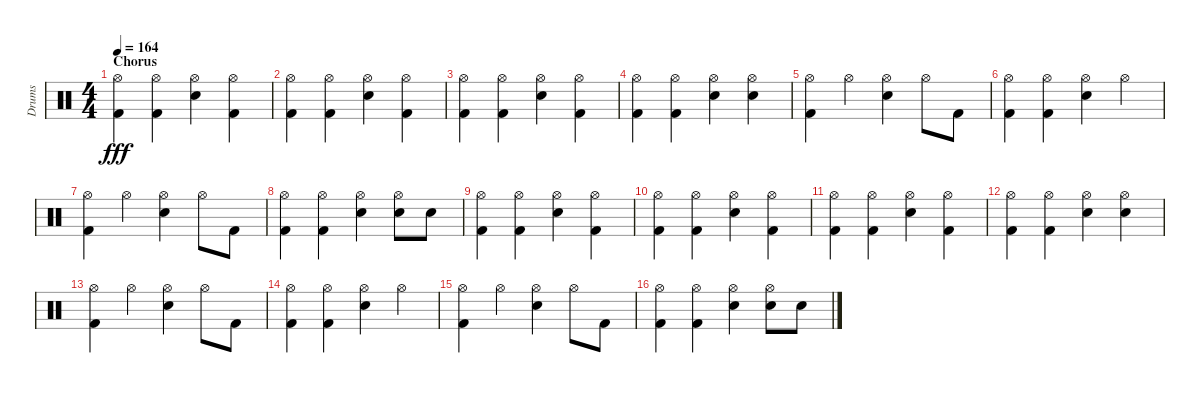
\track ("Drums" "Drums") {instrument percussion}
\staff {score}
\articulation defaults
\ts (4 4)
\section ("" "Chorus")
\tempo 164
\clef neutral
\ks c
("Hi-Hat (open)" "Kick (hit) 2").4{dy fff} ("Hi-Hat (open)" "Kick (hit) 2").4 ("Hi-Hat (open)" "Electric Snare (hit)").4 ("Hi-Hat (open)" "Kick (hit) 2").4 |
("Hi-Hat (open)" "Kick (hit) 2").4 ("Hi-Hat (open)" "Kick (hit) 2").4 ("Hi-Hat (open)" "Electric Snare (hit)").4 ("Hi-Hat (open)" "Kick (hit) 2").4 |
("Hi-Hat (open)" "Kick (hit) 2").4 ("Hi-Hat (open)" "Kick (hit) 2").4 ("Hi-Hat (open)" "Electric Snare (hit)").4 ("Hi-Hat (open)" "Kick (hit) 2").4 |
("Hi-Hat (open)" "Kick (hit) 2").4 ("Hi-Hat (open)" "Kick (hit) 2").4 ("Hi-Hat (open)" "Electric Snare (hit)").4 ("Hi-Hat (open)" "Electric Snare (hit)").4 |
("Hi-Hat (open)" "Kick (hit) 2").4 "Hi-Hat (open)".4 ("Hi-Hat (open)" "Electric Snare (hit)").4 "Hi-Hat (open)".8 "Kick (hit) 2".8 |
("Hi-Hat (open)" "Kick (hit) 2").4 ("Hi-Hat (open)" "Kick (hit) 2").4 ("Hi-Hat (open)" "Electric Snare (hit)").4 "Hi-Hat (open)".4 |
("Hi-Hat (open)" "Kick (hit) 2").4 "Hi-Hat (open)".4 ("Hi-Hat (open)" "Electric Snare (hit)").4 "Hi-Hat (open)".8 "Kick (hit) 2".8 |
("Hi-Hat (open)" "Kick (hit) 2").4 ("Hi-Hat (open)" "Kick (hit) 2").4 ("Hi-Hat (open)" "Electric Snare (hit)").4 ("Hi-Hat (open)" "Electric Snare (hit)").8 "Electric Snare (hit)".8 |
("Hi-Hat (open)" "Kick (hit) 2").4 ("Hi-Hat (open)" "Kick (hit) 2").4 ("Hi-Hat (open)" "Electric Snare (hit)").4 ("Hi-Hat (open)" "Kick (hit) 2").4 |
("Hi-Hat (open)" "Kick (hit) 2").4 ("Hi-Hat (open)" "Kick (hit) 2").4 ("Hi-Hat (open)" "Electric Snare (hit)").4 ("Hi-Hat (open)" "Kick (hit) 2").4 |
("Hi-Hat (open)" "Kick (hit) 2").4 ("Hi-Hat (open)" "Kick (hit) 2").4 ("Hi-Hat (open)" "Electric Snare (hit)").4 ("Hi-Hat (open)" "Kick (hit) 2").4 |
("Hi-Hat (open)" "Kick (hit) 2").4 ("Hi-Hat (open)" "Kick (hit) 2").4 ("Hi-Hat (open)" "Electric Snare (hit)").4 ("Hi-Hat (open)" "Electric Snare (hit)").4 |
("Hi-Hat (open)" "Kick (hit) 2").4 "Hi-Hat (open)".4 ("Hi-Hat (open)" "Electric Snare (hit)").4 "Hi-Hat (open)".8 "Kick (hit) 2".8 |
("Hi-Hat (open)" "Kick (hit) 2").4 ("Hi-Hat (open)" "Kick (hit) 2").4 ("Hi-Hat (open)" "Electric Snare (hit)").4 "Hi-Hat (open)".4 |
("Hi-Hat (open)" "Kick (hit) 2").4 "Hi-Hat (open)".4 ("Hi-Hat (open)" "Electric Snare (hit)").4 "Hi-Hat (open)".8 "Kick (hit) 2".8 |
("Hi-Hat (open)" "Kick (hit) 2").4 ("Hi-Hat (open)" "Kick (hit) 2").4 ("Hi-Hat (open)" "Electric Snare (hit)").4 ("Hi-Hat (open)" "Electric Snare (hit)").8 "Electric Snare (hit)".8
